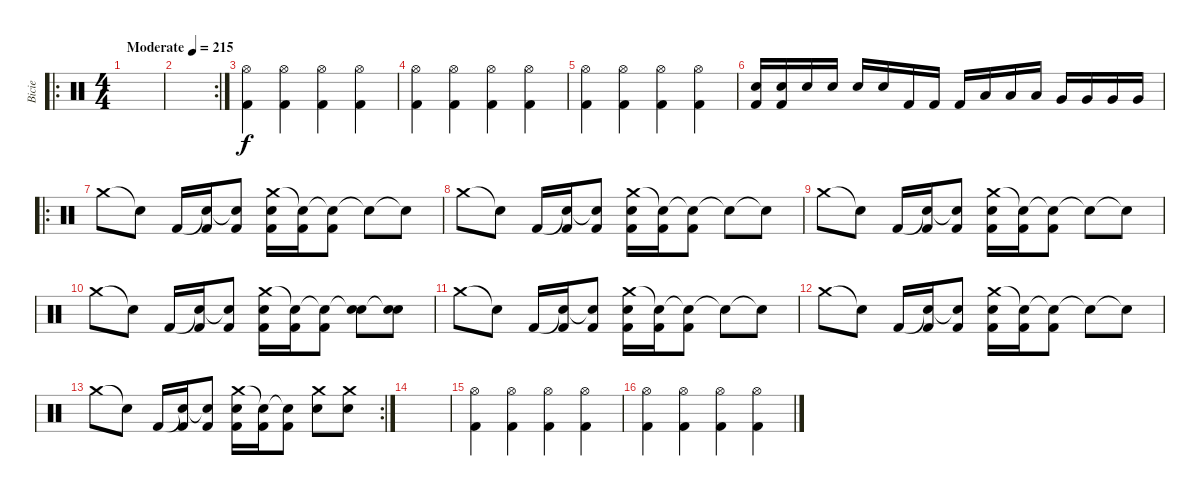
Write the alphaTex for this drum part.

\track ("Bicie" "Bicie") {instrument percussion}
\staff {score}
\articulation defaults
\ro
\ts (4 4)
\tempo (215 "Moderate")
\clef neutral
\ks c
|
\rc 2
|
("Hi-Hat (open)" "Kick (hit) 2").4 ("Hi-Hat (open)" "Kick (hit) 2").4 ("Hi-Hat (open)" "Kick (hit) 2").4 ("Hi-Hat (open)" "Kick (hit) 2").4 |
("Hi-Hat (open)" "Kick (hit) 2").4 ("Hi-Hat (open)" "Kick (hit) 2").4 ("Hi-Hat (open)" "Kick (hit) 2").4 ("Hi-Hat (open)" "Kick (hit) 2").4 |
("Hi-Hat (open)" "Kick (hit) 2").4 ("Hi-Hat (open)" "Kick (hit) 2").4 ("Hi-Hat (open)" "Kick (hit) 2").4 ("Hi-Hat (open)" "Kick (hit) 2").4 |
("Electric Snare (hit)" "Kick (hit) 2").16 ("Electric Snare (hit)" "Kick (hit) 2").16 "Electric Snare (hit)".16 "Electric Snare (hit)".16 "Electric Snare (hit)".16 "Electric Snare (hit)".16 "Kick (hit) 2".16 "Kick (hit) 2".16 "Kick (hit) 2".16 "Low Tom (hit)".16 "Low Tom (hit)".16 "Low Tom (hit)".16 "Very Low Tom (hit)".16 "Very Low Tom (hit)".16 "Very Low Tom (hit)".16 "Very Low Tom (hit)".16 |
\ro "Crash medium (hit)".8 "Snare (hit)"{t}.8 "Kick (hit) 2".16
("Snare (hit)"{t} "Kick (hit) 2").16 ("Snare (hit)"{t} "Kick (hit) 2").8 ("Crash medium (hit)" "Electric Snare (hit)" "Kick (hit) 2").16 ("Snare (hit)"{t} "Kick (hit) 2").16 ("Snare (hit)"{t} "Kick (hit) 2").8 "Snare (hit)"{t}.8 "Snare (hit)"{t}.8 |
"Crash medium (hit)".8 "Snare (hit)"{t}.8 "Kick (hit) 2".16 ("Snare (hit)"{t} "Kick (hit) 2").16 ("Snare (hit)"{t} "Kick (hit) 2").8 ("Crash medium (hit)" "Electric Snare (hit)" "Kick (hit) 2").16 ("Snare (hit)"{t} "Kick (hit) 2").16 ("Snare (hit)"{t} "Kick (hit) 2").8 "Snare (hit)"{t}.8 "Snare (hit)"{t}.8 |
"Crash medium (hit)".8 "Snare (hit)"{t}.8 "Kick (hit) 2".16 ("Snare (hit)"{t} "Kick (hit) 2").16 ("Snare (hit)"{t} "Kick (hit) 2").8 ("Crash medium (hit)" "Electric Snare (hit)" "Kick (hit) 2").16 ("Snare (hit)"{t} "Kick (hit) 2").16 ("Snare (hit)"{t} "Kick (hit) 2").8 "Snare (hit)"{t}.8 "Snare (hit)"{t}.8 |
"Crash medium (hit)".8 "Snare (hit)"{t}.8 "Kick (hit) 2".16 ("Snare (hit)"{t} "Kick (hit) 2").16 ("Snare (hit)"{t} "Kick (hit) 2").8 ("Crash medium (hit)" "Electric Snare (hit)" "Kick (hit) 2").16 ("Snare (hit)"{t} "Kick (hit) 2").16 ("Snare (hit)"{t} "Kick (hit) 2").8 ("Snare (hit)"{t} "Electric Snare (hit)").8 ("Snare (hit)"{t} "Electric Snare (hit)").8 |
"Crash medium (hit)".8 "Snare (hit)"{t}.8 "Kick (hit) 2".16 ("Snare (hit)"{t} "Kick (hit) 2").16 ("Snare (hit)"{t} "Kick (hit) 2").8 ("Crash medium (hit)" "Electric Snare (hit)" "Kick (hit) 2").16 ("Snare (hit)"{t} "Kick (hit) 2").16 ("Snare (hit)"{t} "Kick (hit) 2").8 "Snare (hit)"{t}.8 "Snare (hit)"{t}.8 |
"Crash medium (hit)".8 "Snare (hit)"{t}.8 "Kick (hit) 2".16 ("Snare (hit)"{t} "Kick (hit) 2").16 ("Snare (hit)"{t} "Kick (hit) 2").8 ("Crash medium (hit)" "Electric Snare (hit)" "Kick (hit) 2").16 ("Snare (hit)"{t} "Kick (hit) 2").16 ("Snare (hit)"{t} "Kick (hit) 2").8 "Snare (hit)"{t}.8 "Snare (hit)"{t}.8 |
\rc 2 "Crash medium (hit)".8 "Snare (hit)"{t}.8 "Kick (hit) 2".16
("Snare (hit)"{t} "Kick (hit) 2").16 ("Snare (hit)"{t} "Kick (hit) 2").8 ("Crash medium (hit)" "Electric Snare (hit)" "Kick (hit) 2").16 ("Snare (hit)"{t} "Kick (hit) 2").16 ("Snare (hit)"{t} "Kick (hit) 2").8 ("Crash medium (hit)" "Electric Snare (hit)").8 ("Crash medium (hit)" "Electric Snare (hit)").8 |
|
("Hi-Hat (open)" "Kick (hit) 2").4 ("Hi-Hat (open)" "Kick (hit) 2").4 ("Hi-Hat (open)" "Kick (hit) 2").4 ("Hi-Hat (open)" "Kick (hit) 2").4 |
("Hi-Hat (open)" "Kick (hit) 2").4 ("Hi-Hat (open)" "Kick (hit) 2").4 ("Hi-Hat (open)" "Kick (hit) 2").4 ("Hi-Hat (open)" "Kick (hit) 2").4
